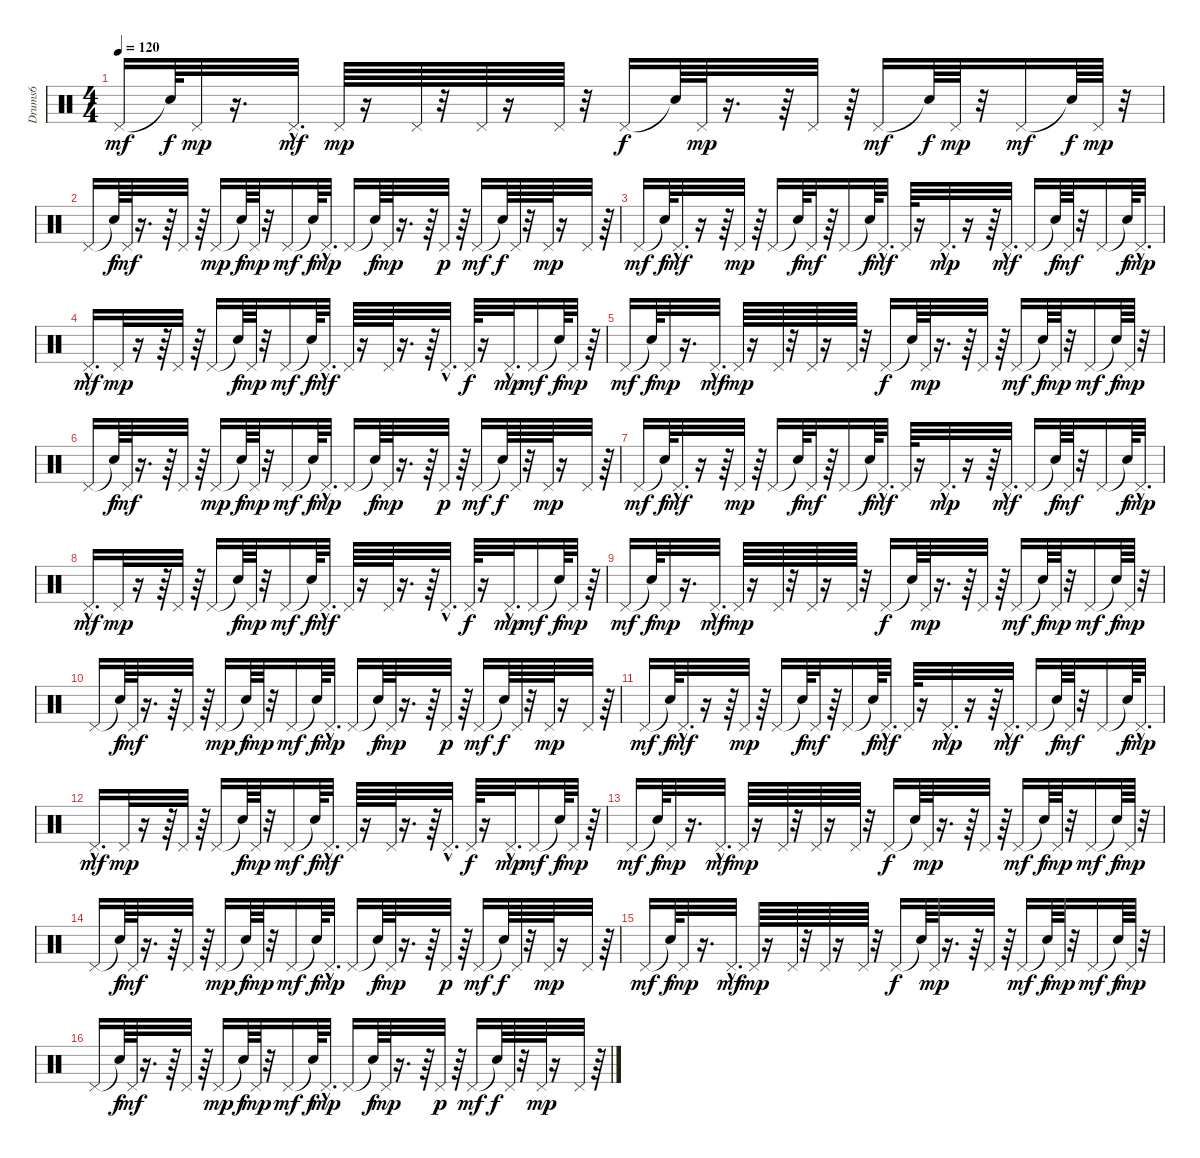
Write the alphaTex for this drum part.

\track ("Drums6" "Drums6") {instrument percussion}
\staff {score}
\articulation defaults
\ts (4 4)
\tempo 120
\clef neutral
\ks c "Pedal Hi-Hat (hit)".16{dy mf} "Snare (hit)"{t}.64{dy f} "Pedal Hi-Hat (hit)".32{dy mp}
r.16{d} "Pedal Hi-Hat (hit)"{hac}.32{d dy mf} "Pedal Hi-Hat (hit)".64{dy mp} r.16 "Pedal Hi-Hat (hit)".64 r.32 "Pedal Hi-Hat (hit)".64 r.16 "Pedal Hi-Hat (hit)".64 r.32 "Pedal Hi-Hat (hit)".16{dy f} "Snare (hit)"{t}.64 "Pedal Hi-Hat (hit)".64{dy mp} r.16{d} r.64 "Pedal Hi-Hat (hit)".32 r.64 "Pedal Hi-Hat (hit)".16{dy mf} "Snare (hit)"{t}.64{dy f} "Pedal Hi-Hat (hit)".64{dy mp} r.32 "Pedal Hi-Hat (hit)".16{dy mf} "Snare (hit)"{t}.64{dy f} "Pedal Hi-Hat (hit)".64{dy mp} r.32 |
"Pedal Hi-Hat (hit)".16 "Snare (hit)"{t}.64{dy f} "Pedal Hi-Hat (hit)".64{dy mf} r.16{d} r.64 "Pedal Hi-Hat (hit)".32 r.64 "Pedal Hi-Hat (hit)".16{dy mp} "Snare (hit)"{t}.64{dy f} "Pedal Hi-Hat (hit)".64{dy mp} r.32 "Pedal Hi-Hat (hit)".16{dy mf} "Snare (hit)"{t}.64{dy f} "Pedal Hi-Hat (hit)"{hac}.32{d dy mp} "Pedal Hi-Hat (hit)".16 "Snare (hit)"{t}.64{dy f} "Pedal Hi-Hat (hit)".64{dy mp} r.16{d} r.64 "Pedal Hi-Hat (hit)".32{dy p} r.64 "Pedal Hi-Hat (hit)".16{dy mf} "Snare (hit)"{t}.64{dy f} "Pedal Hi-Hat (hit)".64 r.32 "Pedal Hi-Hat (hit)".64{dy mp} r.16 "Pedal Hi-Hat (hit)".32 r.64 |
"Pedal Hi-Hat (hit)".16{dy mf} "Snare (hit)"{t}.64{dy f} "Pedal Hi-Hat (hit)"{hac}.32{d dy mf} r.16 r.64 "Pedal Hi-Hat (hit)".32{dy mp} r.64 "Pedal Hi-Hat (hit)".16 "Snare (hit)"{t}.64{dy f} "Pedal Hi-Hat (hit)".32{dy mf} r.64 "Pedal Hi-Hat (hit)".16 "Snare (hit)"{t}.64{dy f} "Pedal Hi-Hat (hit)"{hac}.32{d dy mf} "Pedal Hi-Hat (hit)".64 r.16 "Pedal Hi-Hat (hit)"{hac}.32{d dy mp} r.16 r.64 "Pedal Hi-Hat (hit)"{hac}.32{d dy mf} "Pedal Hi-Hat (hit)".16 "Snare (hit)"{t}.64{dy f} "Pedal Hi-Hat (hit)".64{dy mf} r.32 "Pedal Hi-Hat (hit)".16 "Snare (hit)"{t}.64{dy f} "Pedal Hi-Hat (hit)"{hac}.32{d dy mp} |
"Pedal Hi-Hat (hit)"{hac}.16{d dy mf} "Pedal Hi-Hat (hit)".32{dy mp} r.16 r.64 "Pedal Hi-Hat (hit)".32 r.64 "Pedal Hi-Hat (hit)".16 "Snare (hit)"{t}.64{dy f} "Pedal Hi-Hat (hit)".64{dy mp} r.32 "Pedal Hi-Hat (hit)".16{dy mf} "Snare (hit)"{t}.64{dy f} "Pedal Hi-Hat (hit)"{hac}.32{d dy mf} "Pedal Hi-Hat (hit)".64 r.16 "Pedal Hi-Hat (hit)".64 r.16{d} r.64 "Pedal Hi-Hat (hit)"{hac}.32{d} "Pedal Hi-Hat (hit)".64{dy f} r.16 "Pedal Hi-Hat (hit)"{hac}.32{d dy mp} "Pedal Hi-Hat (hit)".16{dy mf} "Snare (hit)"{t}.64{dy f} "Pedal Hi-Hat (hit)".32{dy mp} r.64 |
"Pedal Hi-Hat (hit)".16{dy mf} "Snare (hit)"{t}.64{dy f} "Pedal Hi-Hat (hit)".32{dy mp} r.16{d} "Pedal Hi-Hat (hit)"{hac}.32{d dy mf} "Pedal Hi-Hat (hit)".64{dy mp} r.16 "Pedal Hi-Hat (hit)".64 r.32 "Pedal Hi-Hat (hit)".64 r.16 "Pedal Hi-Hat (hit)".64 r.32 "Pedal Hi-Hat (hit)".16{dy f} "Snare (hit)"{t}.64 "Pedal Hi-Hat (hit)".64{dy mp} r.16{d} r.64 "Pedal Hi-Hat (hit)".32 r.64 "Pedal Hi-Hat (hit)".16{dy mf} "Snare (hit)"{t}.64{dy f} "Pedal Hi-Hat (hit)".64{dy mp} r.32 "Pedal Hi-Hat (hit)".16{dy mf} "Snare (hit)"{t}.64{dy f} "Pedal Hi-Hat (hit)".64{dy mp} r.32 |
"Pedal Hi-Hat (hit)".16 "Snare (hit)"{t}.64{dy f} "Pedal Hi-Hat (hit)".64{dy mf} r.16{d} r.64 "Pedal Hi-Hat (hit)".32 r.64 "Pedal Hi-Hat (hit)".16{dy mp} "Snare (hit)"{t}.64{dy f} "Pedal Hi-Hat (hit)".64{dy mp} r.32 "Pedal Hi-Hat (hit)".16{dy mf} "Snare (hit)"{t}.64{dy f} "Pedal Hi-Hat (hit)"{hac}.32{d dy mp} "Pedal Hi-Hat (hit)".16 "Snare (hit)"{t}.64{dy f} "Pedal Hi-Hat (hit)".64{dy mp} r.16{d} r.64 "Pedal Hi-Hat (hit)".32{dy p} r.64 "Pedal Hi-Hat (hit)".16{dy mf} "Snare (hit)"{t}.64{dy f} "Pedal Hi-Hat (hit)".64 r.32 "Pedal Hi-Hat (hit)".64{dy mp} r.16 "Pedal Hi-Hat (hit)".32 r.64 |
"Pedal Hi-Hat (hit)".16{dy mf} "Snare (hit)"{t}.64{dy f} "Pedal Hi-Hat (hit)"{hac}.32{d dy mf} r.16 r.64 "Pedal Hi-Hat (hit)".32{dy mp} r.64 "Pedal Hi-Hat (hit)".16 "Snare (hit)"{t}.64{dy f} "Pedal Hi-Hat (hit)".32{dy mf} r.64 "Pedal Hi-Hat (hit)".16 "Snare (hit)"{t}.64{dy f} "Pedal Hi-Hat (hit)"{hac}.32{d dy mf} "Pedal Hi-Hat (hit)".64 r.16 "Pedal Hi-Hat (hit)"{hac}.32{d dy mp} r.16 r.64 "Pedal Hi-Hat (hit)"{hac}.32{d dy mf} "Pedal Hi-Hat (hit)".16 "Snare (hit)"{t}.64{dy f} "Pedal Hi-Hat (hit)".64{dy mf} r.32 "Pedal Hi-Hat (hit)".16 "Snare (hit)"{t}.64{dy f} "Pedal Hi-Hat (hit)"{hac}.32{d dy mp} |
"Pedal Hi-Hat (hit)"{hac}.16{d dy mf} "Pedal Hi-Hat (hit)".32{dy mp} r.16 r.64 "Pedal Hi-Hat (hit)".32 r.64 "Pedal Hi-Hat (hit)".16 "Snare (hit)"{t}.64{dy f} "Pedal Hi-Hat (hit)".64{dy mp} r.32 "Pedal Hi-Hat (hit)".16{dy mf} "Snare (hit)"{t}.64{dy f} "Pedal Hi-Hat (hit)"{hac}.32{d dy mf} "Pedal Hi-Hat (hit)".64 r.16 "Pedal Hi-Hat (hit)".64 r.16{d} r.64 "Pedal Hi-Hat (hit)"{hac}.32{d} "Pedal Hi-Hat (hit)".64{dy f} r.16 "Pedal Hi-Hat (hit)"{hac}.32{d dy mp} "Pedal Hi-Hat (hit)".16{dy mf} "Snare (hit)"{t}.64{dy f} "Pedal Hi-Hat (hit)".32{dy mp} r.64 |
"Pedal Hi-Hat (hit)".16{dy mf} "Snare (hit)"{t}.64{dy f} "Pedal Hi-Hat (hit)".32{dy mp} r.16{d} "Pedal Hi-Hat (hit)"{hac}.32{d dy mf} "Pedal Hi-Hat (hit)".64{dy mp} r.16 "Pedal Hi-Hat (hit)".64 r.32 "Pedal Hi-Hat (hit)".64 r.16 "Pedal Hi-Hat (hit)".64 r.32 "Pedal Hi-Hat (hit)".16{dy f} "Snare (hit)"{t}.64 "Pedal Hi-Hat (hit)".64{dy mp} r.16{d} r.64 "Pedal Hi-Hat (hit)".32 r.64 "Pedal Hi-Hat (hit)".16{dy mf} "Snare (hit)"{t}.64{dy f} "Pedal Hi-Hat (hit)".64{dy mp} r.32 "Pedal Hi-Hat (hit)".16{dy mf} "Snare (hit)"{t}.64{dy f} "Pedal Hi-Hat (hit)".64{dy mp} r.32 |
"Pedal Hi-Hat (hit)".16 "Snare (hit)"{t}.64{dy f} "Pedal Hi-Hat (hit)".64{dy mf} r.16{d} r.64 "Pedal Hi-Hat (hit)".32 r.64 "Pedal Hi-Hat (hit)".16{dy mp} "Snare (hit)"{t}.64{dy f} "Pedal Hi-Hat (hit)".64{dy mp} r.32 "Pedal Hi-Hat (hit)".16{dy mf} "Snare (hit)"{t}.64{dy f} "Pedal Hi-Hat (hit)"{hac}.32{d dy mp} "Pedal Hi-Hat (hit)".16 "Snare (hit)"{t}.64{dy f} "Pedal Hi-Hat (hit)".64{dy mp} r.16{d} r.64 "Pedal Hi-Hat (hit)".32{dy p} r.64 "Pedal Hi-Hat (hit)".16{dy mf} "Snare (hit)"{t}.64{dy f} "Pedal Hi-Hat (hit)".64 r.32 "Pedal Hi-Hat (hit)".64{dy mp} r.16 "Pedal Hi-Hat (hit)".32 r.64 |
"Pedal Hi-Hat (hit)".16{dy mf} "Snare (hit)"{t}.64{dy f} "Pedal Hi-Hat (hit)"{hac}.32{d dy mf} r.16 r.64 "Pedal Hi-Hat (hit)".32{dy mp} r.64 "Pedal Hi-Hat (hit)".16 "Snare (hit)"{t}.64{dy f} "Pedal Hi-Hat (hit)".32{dy mf} r.64 "Pedal Hi-Hat (hit)".16 "Snare (hit)"{t}.64{dy f} "Pedal Hi-Hat (hit)"{hac}.32{d dy mf} "Pedal Hi-Hat (hit)".64 r.16 "Pedal Hi-Hat (hit)"{hac}.32{d dy mp} r.16 r.64 "Pedal Hi-Hat (hit)"{hac}.32{d dy mf} "Pedal Hi-Hat (hit)".16 "Snare (hit)"{t}.64{dy f} "Pedal Hi-Hat (hit)".64{dy mf} r.32 "Pedal Hi-Hat (hit)".16 "Snare (hit)"{t}.64{dy f} "Pedal Hi-Hat (hit)"{hac}.32{d dy mp} |
"Pedal Hi-Hat (hit)"{hac}.16{d dy mf} "Pedal Hi-Hat (hit)".32{dy mp} r.16 r.64 "Pedal Hi-Hat (hit)".32 r.64 "Pedal Hi-Hat (hit)".16 "Snare (hit)"{t}.64{dy f} "Pedal Hi-Hat (hit)".64{dy mp} r.32 "Pedal Hi-Hat (hit)".16{dy mf} "Snare (hit)"{t}.64{dy f} "Pedal Hi-Hat (hit)"{hac}.32{d dy mf} "Pedal Hi-Hat (hit)".64 r.16 "Pedal Hi-Hat (hit)".64 r.16{d} r.64 "Pedal Hi-Hat (hit)"{hac}.32{d} "Pedal Hi-Hat (hit)".64{dy f} r.16 "Pedal Hi-Hat (hit)"{hac}.32{d dy mp} "Pedal Hi-Hat (hit)".16{dy mf} "Snare (hit)"{t}.64{dy f} "Pedal Hi-Hat (hit)".32{dy mp} r.64 |
"Pedal Hi-Hat (hit)".16{dy mf} "Snare (hit)"{t}.64{dy f} "Pedal Hi-Hat (hit)".32{dy mp} r.16{d} "Pedal Hi-Hat (hit)"{hac}.32{d dy mf} "Pedal Hi-Hat (hit)".64{dy mp} r.16 "Pedal Hi-Hat (hit)".64 r.32 "Pedal Hi-Hat (hit)".64 r.16 "Pedal Hi-Hat (hit)".64 r.32 "Pedal Hi-Hat (hit)".16{dy f} "Snare (hit)"{t}.64 "Pedal Hi-Hat (hit)".64{dy mp} r.16{d} r.64 "Pedal Hi-Hat (hit)".32 r.64 "Pedal Hi-Hat (hit)".16{dy mf} "Snare (hit)"{t}.64{dy f} "Pedal Hi-Hat (hit)".64{dy mp} r.32 "Pedal Hi-Hat (hit)".16{dy mf} "Snare (hit)"{t}.64{dy f} "Pedal Hi-Hat (hit)".64{dy mp} r.32 |
"Pedal Hi-Hat (hit)".16 "Snare (hit)"{t}.64{dy f} "Pedal Hi-Hat (hit)".64{dy mf} r.16{d} r.64 "Pedal Hi-Hat (hit)".32 r.64 "Pedal Hi-Hat (hit)".16{dy mp} "Snare (hit)"{t}.64{dy f} "Pedal Hi-Hat (hit)".64{dy mp} r.32 "Pedal Hi-Hat (hit)".16{dy mf} "Snare (hit)"{t}.64{dy f} "Pedal Hi-Hat (hit)"{hac}.32{d dy mp} "Pedal Hi-Hat (hit)".16 "Snare (hit)"{t}.64{dy f} "Pedal Hi-Hat (hit)".64{dy mp} r.16{d} r.64 "Pedal Hi-Hat (hit)".32{dy p} r.64 "Pedal Hi-Hat (hit)".16{dy mf} "Snare (hit)"{t}.64{dy f} "Pedal Hi-Hat (hit)".64 r.32 "Pedal Hi-Hat (hit)".64{dy mp} r.16 "Pedal Hi-Hat (hit)".32 r.64 |
"Pedal Hi-Hat (hit)".16{dy mf} "Snare (hit)"{t}.64{dy f} "Pedal Hi-Hat (hit)".32{dy mp} r.16{d} "Pedal Hi-Hat (hit)"{hac}.32{d dy mf} "Pedal Hi-Hat (hit)".64{dy mp} r.16 "Pedal Hi-Hat (hit)".64 r.32 "Pedal Hi-Hat (hit)".64 r.16 "Pedal Hi-Hat (hit)".64 r.32 "Pedal Hi-Hat (hit)".16{dy f} "Snare (hit)"{t}.64 "Pedal Hi-Hat (hit)".64{dy mp} r.16{d} r.64 "Pedal Hi-Hat (hit)".32 r.64 "Pedal Hi-Hat (hit)".16{dy mf} "Snare (hit)"{t}.64{dy f} "Pedal Hi-Hat (hit)".64{dy mp} r.32 "Pedal Hi-Hat (hit)".16{dy mf} "Snare (hit)"{t}.64{dy f} "Pedal Hi-Hat (hit)".64{dy mp} r.32 |
"Pedal Hi-Hat (hit)".16 "Snare (hit)"{t}.64{dy f} "Pedal Hi-Hat (hit)".64{dy mf} r.16{d} r.64 "Pedal Hi-Hat (hit)".32 r.64 "Pedal Hi-Hat (hit)".16{dy mp} "Snare (hit)"{t}.64{dy f} "Pedal Hi-Hat (hit)".64{dy mp} r.32 "Pedal Hi-Hat (hit)".16{dy mf} "Snare (hit)"{t}.64{dy f} "Pedal Hi-Hat (hit)"{hac}.32{d dy mp} "Pedal Hi-Hat (hit)".16 "Snare (hit)"{t}.64{dy f} "Pedal Hi-Hat (hit)".64{dy mp} r.16{d} r.64 "Pedal Hi-Hat (hit)".32{dy p} r.64 "Pedal Hi-Hat (hit)".16{dy mf} "Snare (hit)"{t}.64{dy f} "Pedal Hi-Hat (hit)".64 r.32 "Pedal Hi-Hat (hit)".64{dy mp} r.16 "Pedal Hi-Hat (hit)".32 r.64
